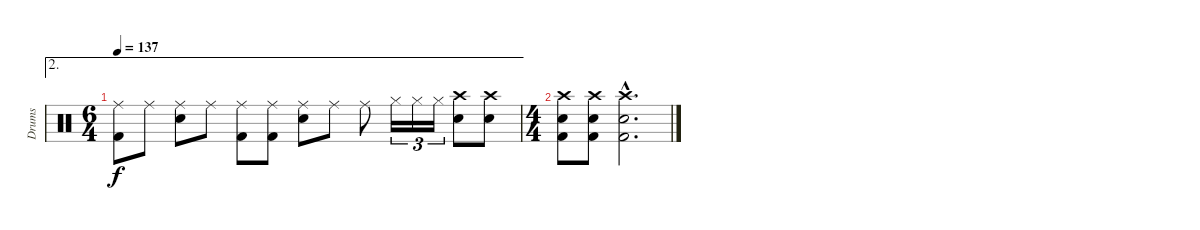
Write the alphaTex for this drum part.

\track ("Drums" "Drums") {instrument percussion}
\staff {score}
\articulation defaults
\ae 2
\ts (6 4)
\tempo 137
\clef neutral
\ks c
("Ride (middle)" "Kick (hit) 2").8{dy f} "Ride (middle)".8 ("Ride (middle)" "Electric Snare (hit)").8 "Ride (middle)".8 ("Ride (middle)" "Kick (hit) 2").8 ("Ride (middle)" "Kick (hit) 2").8 ("Ride (middle)" "Electric Snare (hit)").8 "Ride (middle)".8 "Ride (middle)".8 "Hi-Hat (closed)".16{tu (3 2)} "Hi-Hat (closed)".16{tu (3 2)} "Hi-Hat (closed)".16{tu (3 2)} ("Crash high (hit)" "Electric Snare (hit)").8 ("Crash high (hit)" "Electric Snare (hit)").8 |
\ts (4 4)
("Crash high (hit)" "Kick (hit) 2" "Electric Snare (hit)").8 ("Crash high (hit)" "Kick (hit) 2" "Electric Snare (hit)").8 ("Crash high (hit)"{hac} "Kick (hit) 2"{hac} "Electric Snare (hit)"{hac}).2{d}
